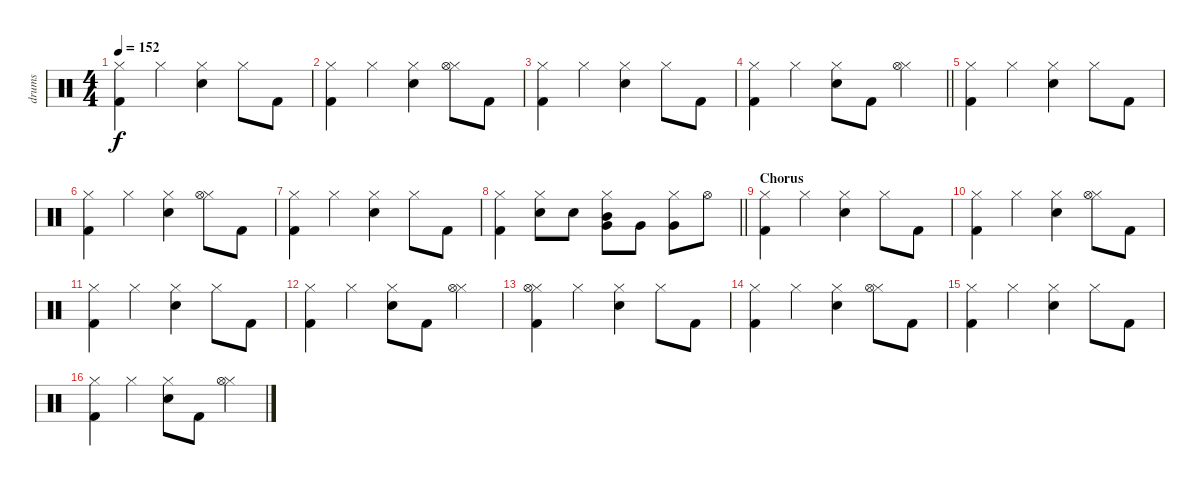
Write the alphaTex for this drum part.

\track ("drums" "drums") {instrument percussion}
\staff {score}
\articulation defaults
\ts (4 4)
\tempo 152
\clef neutral
\ks c
("Hi-Hat (closed)" "Kick (hit) 2").4{dy f} "Hi-Hat (closed)".4 ("Hi-Hat (closed)" "Electric Snare (hit)").4 "Hi-Hat (closed)".8 "Kick (hit) 2".8 |
("Hi-Hat (closed)" "Kick (hit) 2").4 "Hi-Hat (closed)".4 ("Hi-Hat (closed)" "Electric Snare (hit)").4 ("Hi-Hat (closed)" "Hi-Hat (open)").8 "Kick (hit) 2".8 |
("Hi-Hat (closed)" "Kick (hit) 2").4 "Hi-Hat (closed)".4 ("Hi-Hat (closed)" "Electric Snare (hit)").4 "Hi-Hat (closed)".8 "Kick (hit) 2".8 |
\barLineRight lightlight
("Hi-Hat (closed)" "Kick (hit) 2").4 "Hi-Hat (closed)".4 ("Hi-Hat (closed)" "Electric Snare (hit)").8 "Kick (hit) 2".8 ("Hi-Hat (closed)" "Hi-Hat (open)").4 |
("Hi-Hat (closed)" "Kick (hit) 2").4 "Hi-Hat (closed)".4 ("Hi-Hat (closed)" "Electric Snare (hit)").4 "Hi-Hat (closed)".8 "Kick (hit) 2".8 |
("Hi-Hat (closed)" "Kick (hit) 2").4 "Hi-Hat (closed)".4 ("Hi-Hat (closed)" "Electric Snare (hit)").4 ("Hi-Hat (closed)" "Hi-Hat (open)").8 "Kick (hit) 2".8 |
("Hi-Hat (closed)" "Kick (hit) 2").4 "Hi-Hat (closed)".4 ("Hi-Hat (closed)" "Electric Snare (hit)").4 "Hi-Hat (closed)".8 "Kick (hit) 2".8 |
\barLineRight lightlight
("Hi-Hat (closed)" "Kick (hit) 2").4 ("Hi-Hat (closed)" "Electric Snare (hit)").8 "Electric Snare (hit)".8 ("Hi-Hat (closed)" "Very Low Tom (hit)" "Mid Tom (hit)").8 "Very Low Tom (hit)".8 ("Hi-Hat (closed)" "Very Low Tom (hit)").8 "Hi-Hat (open)".8 |
\section ("" "Chorus")
("Hi-Hat (closed)" "Kick (hit) 2").4 "Hi-Hat (closed)".4 ("Hi-Hat (closed)" "Electric Snare (hit)").4 "Hi-Hat (closed)".8 "Kick (hit) 2".8 |
("Hi-Hat (closed)" "Kick (hit) 2").4 "Hi-Hat (closed)".4 ("Hi-Hat (closed)" "Electric Snare (hit)").4 ("Hi-Hat (closed)" "Hi-Hat (open)").8 "Kick (hit) 2".8 |
("Hi-Hat (closed)" "Kick (hit) 2").4 "Hi-Hat (closed)".4 ("Hi-Hat (closed)" "Electric Snare (hit)").4 "Hi-Hat (closed)".8 "Kick (hit) 2".8 |
("Hi-Hat (closed)" "Kick (hit) 2").4 "Hi-Hat (closed)".4 ("Hi-Hat (closed)" "Electric Snare (hit)").8 "Kick (hit) 2".8 ("Hi-Hat (closed)" "Hi-Hat (open)").4 |
("Hi-Hat (closed)" "Hi-Hat (open)" "Kick (hit) 2").4 "Hi-Hat (closed)".4 ("Hi-Hat (closed)" "Electric Snare (hit)").4 "Hi-Hat (closed)".8 "Kick (hit) 2".8 |
("Hi-Hat (closed)" "Kick (hit) 2").4 "Hi-Hat (closed)".4 ("Hi-Hat (closed)" "Electric Snare (hit)").4 ("Hi-Hat (closed)" "Hi-Hat (open)").8 "Kick (hit) 2".8 |
("Hi-Hat (closed)" "Kick (hit) 2").4 "Hi-Hat (closed)".4 ("Hi-Hat (closed)" "Electric Snare (hit)").4 "Hi-Hat (closed)".8 "Kick (hit) 2".8 |
("Hi-Hat (closed)" "Kick (hit) 2").4 "Hi-Hat (closed)".4 ("Hi-Hat (closed)" "Electric Snare (hit)").8 "Kick (hit) 2".8 ("Hi-Hat (closed)" "Hi-Hat (open)").4
